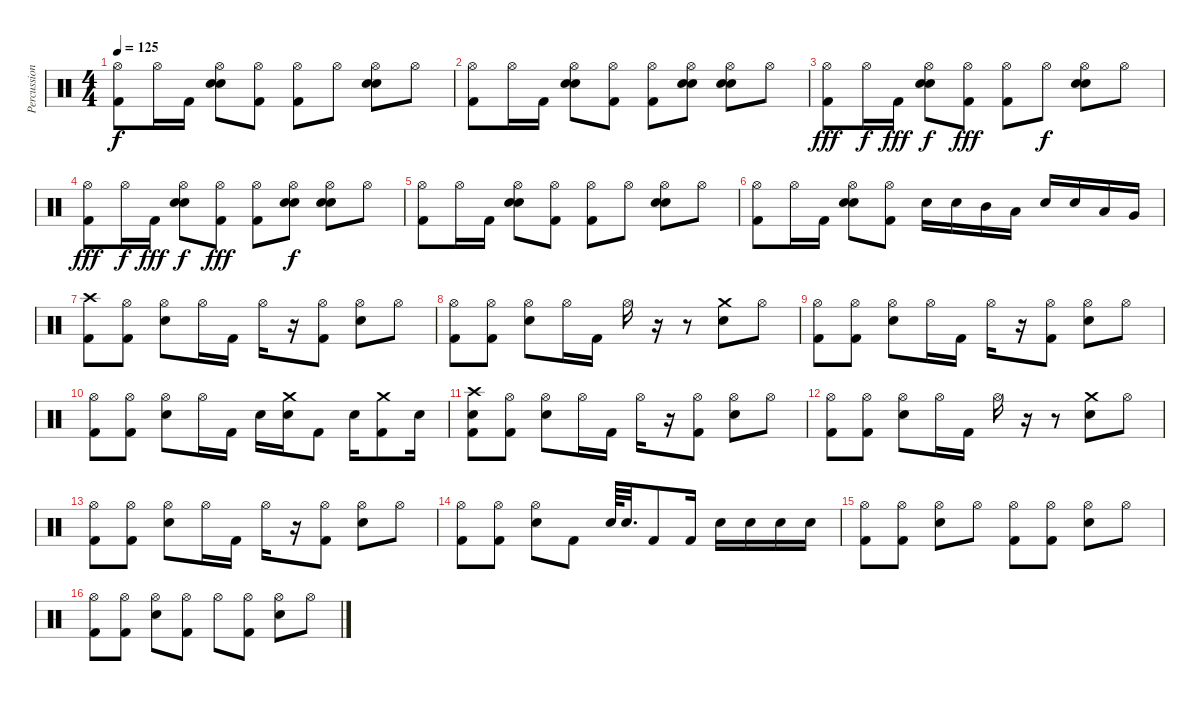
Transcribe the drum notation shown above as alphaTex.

\track ("Percussion" "Percussion") {instrument percussion}
\staff {score}
\articulation defaults
\ts (4 4)
\tempo 125
\clef neutral
\ks c
("Hi-Hat (open)" "Kick (hit) 2").8{dy f} "Hi-Hat (open)".16 "Kick (hit) 2".16 ("Hand Clap (hit)" "Hi-Hat (open)" "Electric Snare (hit)").8 ("Hi-Hat (open)" "Kick (hit) 2").8 ("Hi-Hat (open)" "Kick (hit) 2").8 "Hi-Hat (open)".8 ("Hand Clap (hit)" "Hi-Hat (open)" "Electric Snare (hit)").8 "Hi-Hat (open)".8 |
("Hi-Hat (open)" "Kick (hit) 2").8 "Hi-Hat (open)".16 "Kick (hit) 2".16 ("Hand Clap (hit)" "Hi-Hat (open)" "Electric Snare (hit)").8 ("Hi-Hat (open)" "Kick (hit) 2").8 ("Hi-Hat (open)" "Kick (hit) 2").8 ("Hand Clap (hit)" "Hi-Hat (open)" "Electric Snare (hit)").8 ("Hand Clap (hit)" "Hi-Hat (open)" "Electric Snare (hit)").8 "Hi-Hat (open)".8 |
("Hi-Hat (open)" "Kick (hit) 2").8{dy fff} "Hi-Hat (open)".16{dy f} "Kick (hit) 2".16{dy fff} ("Hand Clap (hit)" "Hi-Hat (open)" "Electric Snare (hit)").8{dy f} ("Hi-Hat (open)" "Kick (hit) 2").8{dy fff} ("Hi-Hat (open)" "Kick (hit) 2").8 "Hi-Hat (open)".8{dy f} ("Hand Clap (hit)" "Hi-Hat (open)" "Electric Snare (hit)").8 "Hi-Hat (open)".8 |
("Hi-Hat (open)" "Kick (hit) 2").8{dy fff} "Hi-Hat (open)".16{dy f} "Kick (hit) 2".16{dy fff} ("Hand Clap (hit)" "Hi-Hat (open)" "Electric Snare (hit)").8{dy f} ("Hi-Hat (open)" "Kick (hit) 2").8{dy fff} ("Hi-Hat (open)" "Kick (hit) 2").8 ("Hand Clap (hit)" "Hi-Hat (open)" "Electric Snare (hit)").8{dy f} ("Hand Clap (hit)" "Hi-Hat (open)" "Electric Snare (hit)").8 "Hi-Hat (open)".8 |
("Hi-Hat (open)" "Kick (hit) 2").8 "Hi-Hat (open)".16 "Kick (hit) 2".16 ("Hand Clap (hit)" "Hi-Hat (open)" "Electric Snare (hit)").8 ("Hi-Hat (open)" "Kick (hit) 2").8 ("Hi-Hat (open)" "Kick (hit) 2").8 "Hi-Hat (open)".8 ("Hand Clap (hit)" "Hi-Hat (open)" "Electric Snare (hit)").8 "Hi-Hat (open)".8 |
("Hi-Hat (open)" "Kick (hit) 2").8 "Hi-Hat (open)".16 "Kick (hit) 2".16 ("Hand Clap (hit)" "Hi-Hat (open)" "Electric Snare (hit)").8 ("Hi-Hat (open)" "Kick (hit) 2").8 "Electric Snare (hit)".16 "Electric Snare (hit)".16 "Mid Tom (hit)".16 "Low Tom (hit)".16 "Electric Snare (hit)".16 "Electric Snare (hit)".16 "Low Tom (hit)".16 "Very Low Tom (hit)".16 |
("Crash high (hit)" "Kick (hit) 2").8 ("Hi-Hat (open)" "Kick (hit) 2").8 ("Hi-Hat (open)" "Electric Snare (hit)").8 "Hi-Hat (open)".16 "Kick (hit) 2".16 "Hi-Hat (open)".16 r.16 ("Hi-Hat (open)" "Kick (hit) 2").8 ("Hi-Hat (open)" "Electric Snare (hit)").8 "Hi-Hat (open)".8 |
("Hi-Hat (open)" "Kick (hit) 2").8 ("Hi-Hat (open)" "Kick (hit) 2").8 ("Hi-Hat (open)" "Electric Snare (hit)").8 "Hi-Hat (open)".16 "Kick (hit) 2".16 "Hi-Hat (open)".16 r.16 r.8 ("Crash medium (hit)" "Electric Snare (hit)").8 "Hi-Hat (open)".8 |
("Hi-Hat (open)" "Kick (hit) 2").8 ("Hi-Hat (open)" "Kick (hit) 2").8 ("Hi-Hat (open)" "Electric Snare (hit)").8 "Hi-Hat (open)".16 "Kick (hit) 2".16 "Hi-Hat (open)".16 r.16 ("Hi-Hat (open)" "Kick (hit) 2").8 ("Hi-Hat (open)" "Electric Snare (hit)").8 "Hi-Hat (open)".8 |
("Hi-Hat (open)" "Kick (hit) 2").8 ("Hi-Hat (open)" "Kick (hit) 2").8 ("Hi-Hat (open)" "Electric Snare (hit)").8 "Hi-Hat (open)".16 "Kick (hit) 2".16 "Electric Snare (hit)".16 ("Crash medium (hit)" "Electric Snare (hit)").16 "Kick (hit) 2".8 "Electric Snare (hit)".16 ("Crash medium (hit)" "Kick (hit) 2").8 "Electric Snare (hit)".16 |
("Crash high (hit)" "Electric Snare (hit)" "Kick (hit) 2").8 ("Hi-Hat (open)" "Kick (hit) 2").8 ("Hi-Hat (open)" "Electric Snare (hit)").8 "Hi-Hat (open)".16 "Kick (hit) 2".16 "Hi-Hat (open)".16 r.16 ("Hi-Hat (open)" "Kick (hit) 2").8 ("Hi-Hat (open)" "Electric Snare (hit)").8 "Hi-Hat (open)".8 |
("Hi-Hat (open)" "Kick (hit) 2").8 ("Hi-Hat (open)" "Kick (hit) 2").8 ("Hi-Hat (open)" "Electric Snare (hit)").8 "Hi-Hat (open)".16 "Kick (hit) 2".16 "Hi-Hat (open)".16 r.16 r.8 ("Crash medium (hit)" "Electric Snare (hit)").8 "Hi-Hat (open)".8 |
("Hi-Hat (open)" "Kick (hit) 2").8 ("Hi-Hat (open)" "Kick (hit) 2").8 ("Hi-Hat (open)" "Electric Snare (hit)").8 "Hi-Hat (open)".16 "Kick (hit) 2".16 "Hi-Hat (open)".16 r.16 ("Hi-Hat (open)" "Kick (hit) 2").8 ("Hi-Hat (open)" "Electric Snare (hit)").8 "Hi-Hat (open)".8 |
("Hi-Hat (open)" "Kick (hit) 2").8 ("Hi-Hat (open)" "Kick (hit) 2").8 ("Hi-Hat (open)" "Electric Snare (hit)").8 "Kick (hit) 2".8 "Electric Snare (hit)".64 "Electric Snare (hit)".32{d} "Kick (hit) 2".8 "Kick (hit) 2".16 "Electric Snare (hit)".16 "Electric Snare (hit)".16 "Electric Snare (hit)".16 "Electric Snare (hit)".16 |
("Hi-Hat (open)" "Kick (hit) 2").8 ("Hi-Hat (open)" "Kick (hit) 2").8 ("Hi-Hat (open)" "Electric Snare (hit)").8 "Hi-Hat (open)".8 ("Hi-Hat (open)" "Kick (hit) 2").8 ("Hi-Hat (open)" "Kick (hit) 2").8 ("Hi-Hat (open)" "Electric Snare (hit)").8 "Hi-Hat (open)".8 |
("Hi-Hat (open)" "Kick (hit) 2").8 ("Hi-Hat (open)" "Kick (hit) 2").8 ("Hi-Hat (open)" "Electric Snare (hit)").8 ("Hi-Hat (open)" "Kick (hit) 2").8 "Hi-Hat (open)".8 ("Hi-Hat (open)" "Kick (hit) 2").8 ("Hi-Hat (open)" "Electric Snare (hit)").8 "Hi-Hat (open)".8
